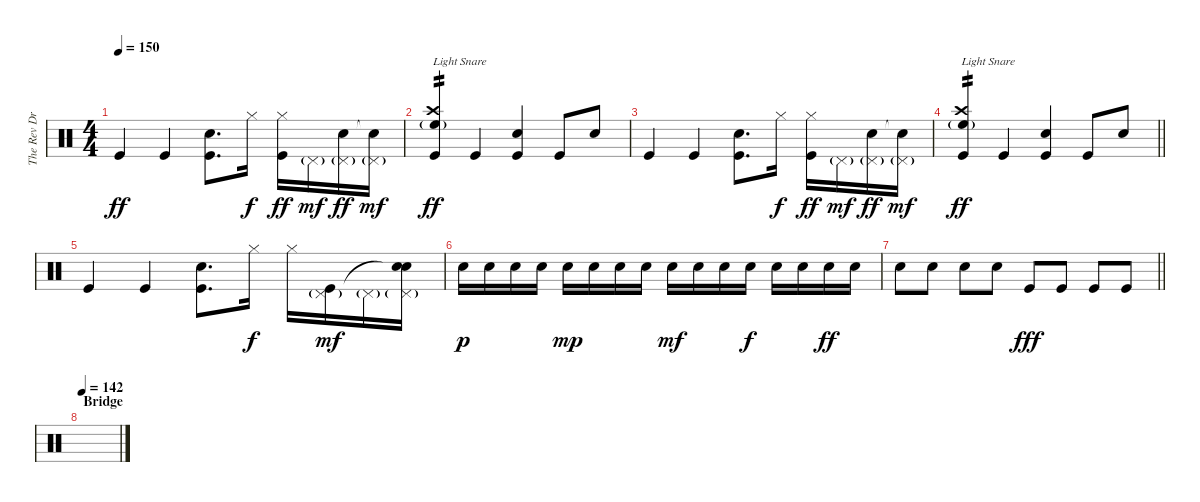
\track ("The Rev Drums" "The Rev Dr") {instrument percussion}
\staff {score}
\articulation defaults
\ts (4 4)
\tempo 150
\clef neutral
\ks c "Kick (hit)".4{dy ff} "Kick (hit)".4
("Electric Snare (hit)" "Kick (hit)").8{d} "Hi-Hat (closed)".16{dy f} ("Hi-Hat (closed)" "Kick (hit)").16{dy ff} "Pedal Hi-Hat (hit)"{g}.16{dy mf} ("Pedal Hi-Hat (hit)"{g} "Electric Snare (hit)").16{dy ff} ("Pedal Hi-Hat (hit)"{g} "Snare (hit)"{t}).16{dy mf} |
("Crash high (hit)" "High Floor Tom (hit)"{g} "Kick (hit)").4{txt "Light Snare" tp 2 dy ff} "Kick (hit)".4 ("Electric Snare (hit)" "Kick (hit)").4 "Kick (hit)".8 "Electric Snare (hit)".8 |
"Kick (hit)".4 "Kick (hit)".4 ("Electric Snare (hit)" "Kick (hit)").8{d} "Hi-Hat (closed)".16{dy f} ("Hi-Hat (closed)" "Kick (hit)").16{dy ff} "Pedal Hi-Hat (hit)"{g}.16{dy mf} ("Pedal Hi-Hat (hit)"{g} "Electric Snare (hit)").16{dy ff} ("Pedal Hi-Hat (hit)"{g} "Snare (hit)"{t}).16{dy mf} |
\barLineRight lightlight
("Crash high (hit)" "High Floor Tom (hit)"{g} "Kick (hit)").4{txt "Light Snare" tp 2 dy ff} "Kick (hit)".4 ("Electric Snare (hit)" "Kick (hit)").4 "Kick (hit)".8 "Electric Snare (hit)".8 |
"Kick (hit)".4 "Kick (hit)".4 ("Electric Snare (hit)" "Kick (hit)").8{d} "Hi-Hat (closed)".16{dy f} "Hi-Hat (closed)".16 ("Pedal Hi-Hat (hit)"{g} "Kick (hit)").16{dy mf} "Pedal Hi-Hat (hit)"{g}.16 ("Pedal Hi-Hat (hit)"{g} "Snare (hit)"{t} "Electric Snare (hit)").16 |
"Electric Snare (hit)".16{dy p} "Electric Snare (hit)".16 "Electric Snare (hit)".16 "Electric Snare (hit)".16 "Electric Snare (hit)".16{dy mp} "Electric Snare (hit)".16 "Electric Snare (hit)".16 "Electric Snare (hit)".16 "Electric Snare (hit)".16{dy mf} "Electric Snare (hit)".16 "Electric Snare (hit)".16 "Electric Snare (hit)".16{dy f} "Electric Snare (hit)".16 "Electric Snare (hit)".16 "Electric Snare (hit)".16{dy ff} "Electric Snare (hit)".16 |
\barLineRight lightlight "Electric Snare (hit)".8 "Electric Snare (hit)".8 "Electric Snare (hit)".8 "Electric Snare (hit)".8 "Kick (hit)".8{dy fff} "Kick (hit)".8 "Kick (hit)".8 "Kick (hit)".8
|
\section ("" "Bridge")
\tempo 142
